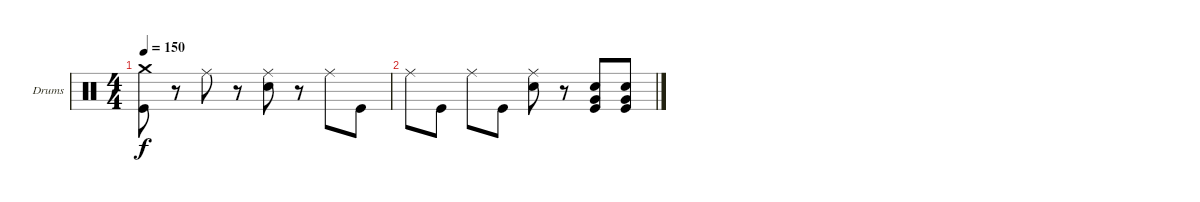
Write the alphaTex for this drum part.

\defaultSystemsLayout 4
\bracketExtendMode groupsimilarinstruments
\firstSystemTrackNameOrientation horizontal
\otherSystemsTrackNameOrientation horizontal
\track ("Drumkit" "Drums") {instrument percussion}
\staff {score}
\articulation defaults
\ts (4 4)
\tempo 150
\clef neutral
\ks c
("Crash medium (hit)" "Kick (hit)").8{dy f} r.8 "Ride (middle)".8 r.8 ("Ride (middle)" "Snare (hit) 2").8 r.8 "Ride (middle)".8 "Kick (hit)".8 |
"Ride (middle)".8 "Kick (hit)".8 "Ride (middle)".8 "Kick (hit)".8 ("Ride (middle)" "Snare (hit) 2").8 r.8 ("Kick (hit)" "Very Low Tom (hit)" "Snare (hit) 2").8 ("Kick (hit)" "Very Low Tom (hit)" "Snare (hit) 2").8
